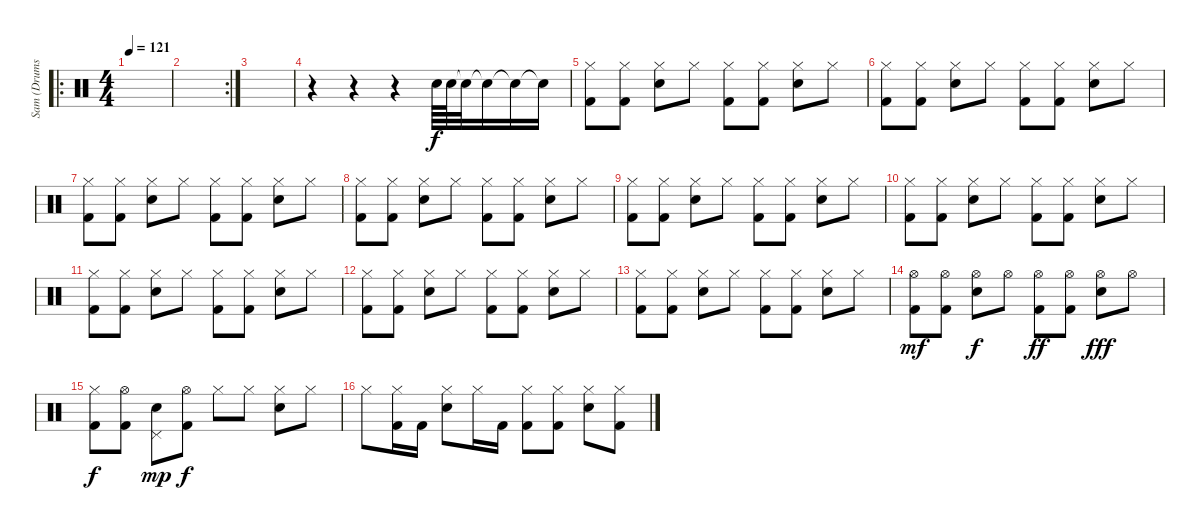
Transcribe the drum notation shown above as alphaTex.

\track ("Sam (Drums)" "Sam (Drums") {instrument percussion}
\staff {score}
\articulation defaults
\ro
\ts (4 4)
\tempo 121
\clef neutral
\ks c
|
\rc 2
|
|
r.4 r.4 r.4 "Snare (hit) 2".64 "Snare (hit) 2".64 "Snare (hit)"{t}.32 "Snare (hit)"{t}.16 "Snare (hit)"{t}.16 "Snare (hit)"{t}.16 |
("Hi-Hat (closed)" "Kick (hit) 2").8 ("Hi-Hat (closed)" "Kick (hit) 2").8 ("Hi-Hat (closed)" "Snare (hit) 2").8 "Hi-Hat (closed)".8 ("Hi-Hat (closed)" "Kick (hit) 2").8 ("Hi-Hat (closed)" "Kick (hit) 2").8 ("Hi-Hat (closed)" "Snare (hit) 2").8 "Hi-Hat (closed)".8 |
("Hi-Hat (closed)" "Kick (hit) 2").8 ("Hi-Hat (closed)" "Kick (hit) 2").8 ("Hi-Hat (closed)" "Snare (hit) 2").8 "Hi-Hat (closed)".8 ("Hi-Hat (closed)" "Kick (hit) 2").8 ("Hi-Hat (closed)" "Kick (hit) 2").8 ("Hi-Hat (closed)" "Snare (hit) 2").8 "Hi-Hat (closed)".8 |
("Hi-Hat (closed)" "Kick (hit) 2").8 ("Hi-Hat (closed)" "Kick (hit) 2").8 ("Hi-Hat (closed)" "Snare (hit) 2").8 "Hi-Hat (closed)".8 ("Hi-Hat (closed)" "Kick (hit) 2").8 ("Hi-Hat (closed)" "Kick (hit) 2").8 ("Hi-Hat (closed)" "Snare (hit) 2").8 "Hi-Hat (closed)".8 |
("Hi-Hat (closed)" "Kick (hit) 2").8 ("Hi-Hat (closed)" "Kick (hit) 2").8 ("Hi-Hat (closed)" "Snare (hit) 2").8 "Hi-Hat (closed)".8 ("Hi-Hat (closed)" "Kick (hit) 2").8 ("Hi-Hat (closed)" "Kick (hit) 2").8 ("Hi-Hat (closed)" "Snare (hit) 2").8 "Hi-Hat (closed)".8 |
("Hi-Hat (closed)" "Kick (hit) 2").8 ("Hi-Hat (closed)" "Kick (hit) 2").8 ("Hi-Hat (closed)" "Snare (hit) 2").8 "Hi-Hat (closed)".8 ("Hi-Hat (closed)" "Kick (hit) 2").8 ("Hi-Hat (closed)" "Kick (hit) 2").8 ("Hi-Hat (closed)" "Snare (hit) 2").8 "Hi-Hat (closed)".8 |
("Hi-Hat (closed)" "Kick (hit) 2").8 ("Hi-Hat (closed)" "Kick (hit) 2").8 ("Hi-Hat (closed)" "Snare (hit) 2").8 "Hi-Hat (closed)".8 ("Hi-Hat (closed)" "Kick (hit) 2").8 ("Hi-Hat (closed)" "Kick (hit) 2").8 ("Hi-Hat (closed)" "Snare (hit) 2").8 "Hi-Hat (closed)".8 |
("Hi-Hat (closed)" "Kick (hit) 2").8 ("Hi-Hat (closed)" "Kick (hit) 2").8 ("Hi-Hat (closed)" "Snare (hit) 2").8 "Hi-Hat (closed)".8 ("Hi-Hat (closed)" "Kick (hit) 2").8 ("Hi-Hat (closed)" "Kick (hit) 2").8 ("Hi-Hat (closed)" "Snare (hit) 2").8 "Hi-Hat (closed)".8 |
("Hi-Hat (closed)" "Kick (hit) 2").8 ("Hi-Hat (closed)" "Kick (hit) 2").8 ("Hi-Hat (closed)" "Snare (hit) 2").8 "Hi-Hat (closed)".8 ("Hi-Hat (closed)" "Kick (hit) 2").8 ("Hi-Hat (closed)" "Kick (hit) 2").8 ("Hi-Hat (closed)" "Snare (hit) 2").8 "Hi-Hat (closed)".8 |
("Hi-Hat (closed)" "Kick (hit) 2").8 ("Hi-Hat (closed)" "Kick (hit) 2").8 ("Hi-Hat (closed)" "Snare (hit) 2").8 "Hi-Hat (closed)".8 ("Hi-Hat (closed)" "Kick (hit) 2").8 ("Hi-Hat (closed)" "Kick (hit) 2").8 ("Hi-Hat (closed)" "Snare (hit) 2").8 "Hi-Hat (closed)".8 |
("Hi-Hat (open)" "Kick (hit) 2").8{dy mf} ("Hi-Hat (open)" "Kick (hit) 2").8 ("Hi-Hat (open)" "Snare (hit) 2").8{dy f} "Hi-Hat (open)".8 ("Hi-Hat (open)" "Kick (hit) 2").8{dy ff} ("Hi-Hat (open)" "Kick (hit) 2").8 ("Hi-Hat (open)" "Snare (hit) 2").8{dy fff} "Hi-Hat (open)".8 |
("Hi-Hat (closed)" "Kick (hit) 2").8{dy f} ("Hi-Hat (open)" "Kick (hit) 2").8 ("Pedal Hi-Hat (hit)" "Snare (hit) 2").8{dy mp} ("Hi-Hat (open)" "Kick (hit) 2").8{dy f} "Hi-Hat (closed)".8 "Hi-Hat (closed)".8 ("Hi-Hat (closed)" "Snare (hit) 2").8 "Hi-Hat (closed)".8 |
"Hi-Hat (closed)".8 ("Hi-Hat (closed)" "Kick (hit) 2").16 "Kick (hit) 2".16 ("Hi-Hat (closed)" "Snare (hit) 2").8 "Hi-Hat (closed)".16 "Kick (hit) 2".16 ("Hi-Hat (closed)" "Kick (hit) 2").8 ("Hi-Hat (closed)" "Kick (hit) 2").8 ("Hi-Hat (closed)" "Snare (hit) 2").8 ("Hi-Hat (closed)" "Kick (hit) 2").8
